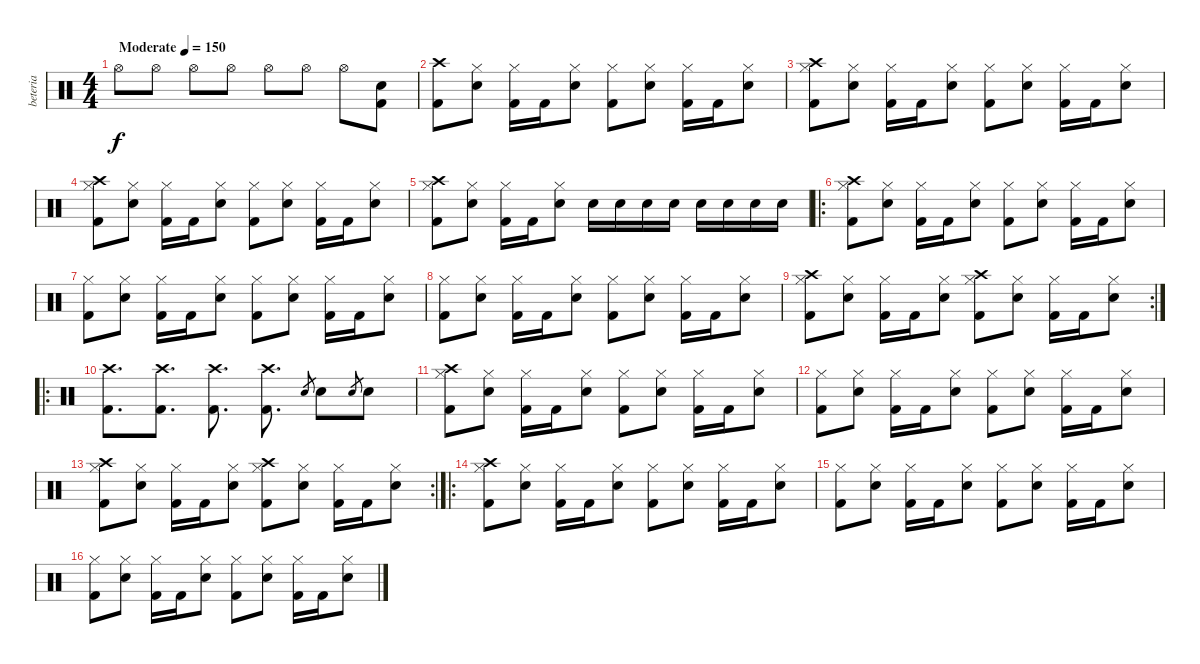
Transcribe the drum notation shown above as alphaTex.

\track ("beteria" "beteria") {instrument percussion}
\staff {score}
\articulation defaults
\ts (4 4)
\tempo (150 "Moderate")
\clef neutral
\ks c "Hi-Hat (open)".8{dy f} "Hi-Hat (open)".8 "Hi-Hat (open)".8 "Hi-Hat (open)".8 "Hi-Hat (open)".8 "Hi-Hat (open)".8 "Hi-Hat (open)".8
("Electric Snare (hit)" "Kick (hit) 2").8 |
("Kick (hit) 2" "Crash high (hit)").8 ("Electric Snare (hit)" "Hi-Hat (closed)").8 ("Kick (hit) 2" "Hi-Hat (closed)").16 "Kick (hit) 2".16 ("Electric Snare (hit)" "Hi-Hat (closed)").8 ("Kick (hit) 2" "Hi-Hat (closed)").8 ("Electric Snare (hit)" "Hi-Hat (closed)").8 ("Kick (hit) 2" "Hi-Hat (closed)").16 "Kick (hit) 2".16 ("Electric Snare (hit)" "Hi-Hat (closed)").8 |
("Kick (hit) 2" "Hi-Hat (closed)" "Crash high (hit)").8 ("Electric Snare (hit)" "Hi-Hat (closed)").8 ("Kick (hit) 2" "Hi-Hat (closed)").16 "Kick (hit) 2".16 ("Electric Snare (hit)" "Hi-Hat (closed)").8 ("Kick (hit) 2" "Hi-Hat (closed)").8 ("Electric Snare (hit)" "Hi-Hat (closed)").8 ("Kick (hit) 2" "Hi-Hat (closed)").16 "Kick (hit) 2".16 ("Electric Snare (hit)" "Hi-Hat (closed)").8 |
("Kick (hit) 2" "Hi-Hat (closed)" "Crash high (hit)").8 ("Electric Snare (hit)" "Hi-Hat (closed)").8 ("Kick (hit) 2" "Hi-Hat (closed)").16 "Kick (hit) 2".16 ("Electric Snare (hit)" "Hi-Hat (closed)").8 ("Kick (hit) 2" "Hi-Hat (closed)").8 ("Electric Snare (hit)" "Hi-Hat (closed)").8 ("Kick (hit) 2" "Hi-Hat (closed)").16 "Kick (hit) 2".16 ("Electric Snare (hit)" "Hi-Hat (closed)").8 |
("Kick (hit) 2" "Hi-Hat (closed)" "Crash high (hit)").8 ("Electric Snare (hit)" "Hi-Hat (closed)").8 ("Kick (hit) 2" "Hi-Hat (closed)").16 "Kick (hit) 2".16 ("Electric Snare (hit)" "Hi-Hat (closed)").8 "Electric Snare (hit)".16 "Electric Snare (hit)".16 "Electric Snare (hit)".16 "Electric Snare (hit)".16 "Electric Snare (hit)".16 "Electric Snare (hit)".16 "Electric Snare (hit)".16 "Electric Snare (hit)".16 |
\ro
("Kick (hit) 2" "Hi-Hat (closed)" "Crash high (hit)").8 ("Electric Snare (hit)" "Hi-Hat (closed)").8 ("Kick (hit) 2" "Hi-Hat (closed)").16 "Kick (hit) 2".16 ("Electric Snare (hit)" "Hi-Hat (closed)").8 ("Kick (hit) 2" "Hi-Hat (closed)").8 ("Electric Snare (hit)" "Hi-Hat (closed)").8 ("Kick (hit) 2" "Hi-Hat (closed)").16 "Kick (hit) 2".16 ("Electric Snare (hit)" "Hi-Hat (closed)").8 |
("Kick (hit) 2" "Hi-Hat (closed)").8 ("Electric Snare (hit)" "Hi-Hat (closed)").8 ("Kick (hit) 2" "Hi-Hat (closed)").16 "Kick (hit) 2".16 ("Electric Snare (hit)" "Hi-Hat (closed)").8 ("Kick (hit) 2" "Hi-Hat (closed)").8 ("Electric Snare (hit)" "Hi-Hat (closed)").8 ("Kick (hit) 2" "Hi-Hat (closed)").16 "Kick (hit) 2".16 ("Electric Snare (hit)" "Hi-Hat (closed)").8 |
("Kick (hit) 2" "Hi-Hat (closed)").8 ("Electric Snare (hit)" "Hi-Hat (closed)").8 ("Kick (hit) 2" "Hi-Hat (closed)").16 "Kick (hit) 2".16 ("Electric Snare (hit)" "Hi-Hat (closed)").8 ("Kick (hit) 2" "Hi-Hat (closed)").8 ("Electric Snare (hit)" "Hi-Hat (closed)").8 ("Kick (hit) 2" "Hi-Hat (closed)").16 "Kick (hit) 2".16 ("Electric Snare (hit)" "Hi-Hat (closed)").8 |
\rc 2
("Kick (hit) 2" "Hi-Hat (closed)" "Crash high (hit)").8 ("Electric Snare (hit)" "Hi-Hat (closed)").8 ("Kick (hit) 2" "Hi-Hat (closed)").16 "Kick (hit) 2".16 ("Electric Snare (hit)" "Hi-Hat (closed)").8 ("Kick (hit) 2" "Hi-Hat (closed)" "Crash high (hit)").8 ("Electric Snare (hit)" "Hi-Hat (closed)").8 ("Kick (hit) 2" "Hi-Hat (closed)").16 "Kick (hit) 2".16 ("Electric Snare (hit)" "Hi-Hat (closed)").8 |
\ro
("Kick (hit) 2" "Crash high (hit)").8{d} ("Kick (hit) 2" "Crash high (hit)").8{d} ("Kick (hit) 2" "Crash high (hit)").8{d} ("Kick (hit) 2" "Crash high (hit)").8{d} "Electric Snare (hit)".8{gr} "Electric Snare (hit)".8 "Electric Snare (hit)".8{gr} "Electric Snare (hit)".8 |
("Kick (hit) 2" "Hi-Hat (closed)" "Crash high (hit)").8 ("Electric Snare (hit)" "Hi-Hat (closed)").8 ("Kick (hit) 2" "Hi-Hat (closed)").16 "Kick (hit) 2".16 ("Electric Snare (hit)" "Hi-Hat (closed)").8 ("Kick (hit) 2" "Hi-Hat (closed)").8 ("Electric Snare (hit)" "Hi-Hat (closed)").8 ("Kick (hit) 2" "Hi-Hat (closed)").16 "Kick (hit) 2".16 ("Electric Snare (hit)" "Hi-Hat (closed)").8 |
("Kick (hit) 2" "Hi-Hat (closed)").8 ("Electric Snare (hit)" "Hi-Hat (closed)").8 ("Kick (hit) 2" "Hi-Hat (closed)").16 "Kick (hit) 2".16 ("Electric Snare (hit)" "Hi-Hat (closed)").8 ("Kick (hit) 2" "Hi-Hat (closed)").8 ("Electric Snare (hit)" "Hi-Hat (closed)").8 ("Kick (hit) 2" "Hi-Hat (closed)").16 "Kick (hit) 2".16 ("Electric Snare (hit)" "Hi-Hat (closed)").8 |
\rc 2
("Kick (hit) 2" "Hi-Hat (closed)" "Crash high (hit)").8 ("Electric Snare (hit)" "Hi-Hat (closed)").8 ("Kick (hit) 2" "Hi-Hat (closed)").16 "Kick (hit) 2".16 ("Electric Snare (hit)" "Hi-Hat (closed)").8 ("Kick (hit) 2" "Hi-Hat (closed)" "Crash high (hit)").8 ("Electric Snare (hit)" "Hi-Hat (closed)").8 ("Kick (hit) 2" "Hi-Hat (closed)").16 "Kick (hit) 2".16 ("Electric Snare (hit)" "Hi-Hat (closed)").8 |
\ro
("Kick (hit) 2" "Hi-Hat (closed)" "Crash high (hit)").8 ("Electric Snare (hit)" "Hi-Hat (closed)").8 ("Kick (hit) 2" "Hi-Hat (closed)").16 "Kick (hit) 2".16 ("Electric Snare (hit)" "Hi-Hat (closed)").8 ("Kick (hit) 2" "Hi-Hat (closed)").8 ("Electric Snare (hit)" "Hi-Hat (closed)").8 ("Kick (hit) 2" "Hi-Hat (closed)").16 "Kick (hit) 2".16 ("Electric Snare (hit)" "Hi-Hat (closed)").8 |
("Kick (hit) 2" "Hi-Hat (closed)").8 ("Electric Snare (hit)" "Hi-Hat (closed)").8 ("Kick (hit) 2" "Hi-Hat (closed)").16 "Kick (hit) 2".16 ("Electric Snare (hit)" "Hi-Hat (closed)").8 ("Kick (hit) 2" "Hi-Hat (closed)").8 ("Electric Snare (hit)" "Hi-Hat (closed)").8 ("Kick (hit) 2" "Hi-Hat (closed)").16 "Kick (hit) 2".16 ("Electric Snare (hit)" "Hi-Hat (closed)").8 |
("Kick (hit) 2" "Hi-Hat (closed)").8 ("Electric Snare (hit)" "Hi-Hat (closed)").8 ("Kick (hit) 2" "Hi-Hat (closed)").16 "Kick (hit) 2".16 ("Electric Snare (hit)" "Hi-Hat (closed)").8 ("Kick (hit) 2" "Hi-Hat (closed)").8 ("Electric Snare (hit)" "Hi-Hat (closed)").8 ("Kick (hit) 2" "Hi-Hat (closed)").16 "Kick (hit) 2".16 ("Electric Snare (hit)" "Hi-Hat (closed)").8
